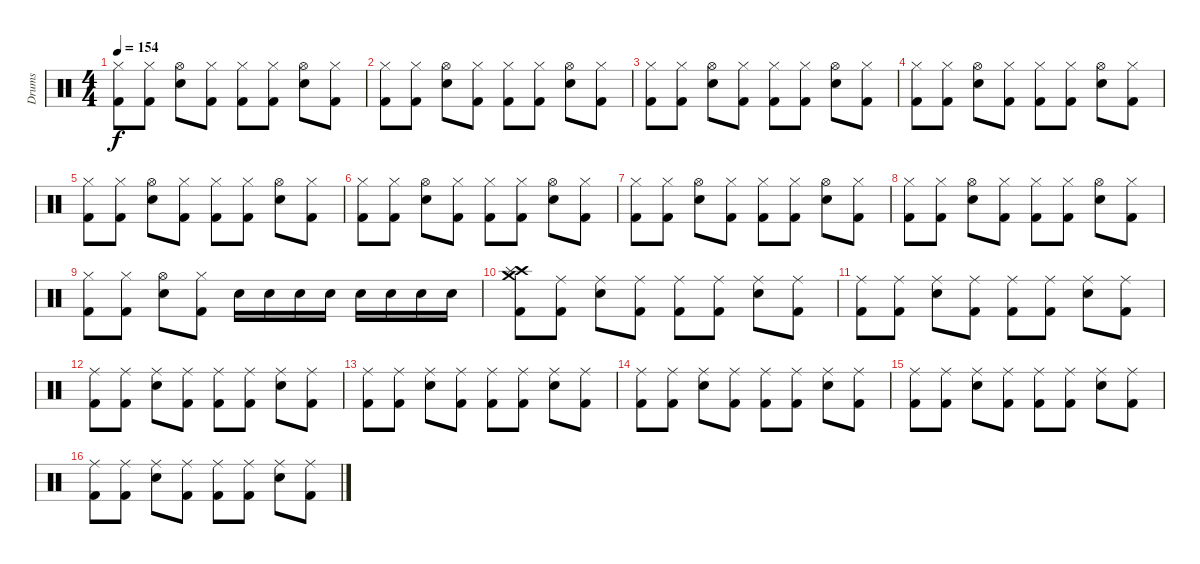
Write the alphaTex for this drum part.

\track ("Drums" "Drums") {instrument percussion}
\staff {score}
\articulation defaults
\ts (4 4)
\tempo 154
\clef neutral
\ks c
("Hi-Hat (closed)" "Kick (hit) 2").8{dy f} ("Hi-Hat (closed)" "Kick (hit) 2").8 ("Hi-Hat (open)" "Snare (hit) 2").8 ("Hi-Hat (closed)" "Kick (hit) 2").8 ("Hi-Hat (closed)" "Kick (hit) 2").8 ("Hi-Hat (closed)" "Kick (hit) 2").8 ("Hi-Hat (open)" "Snare (hit) 2").8 ("Hi-Hat (closed)" "Kick (hit) 2").8 |
("Hi-Hat (closed)" "Kick (hit) 2").8 ("Hi-Hat (closed)" "Kick (hit) 2").8 ("Hi-Hat (open)" "Snare (hit) 2").8 ("Hi-Hat (closed)" "Kick (hit) 2").8 ("Hi-Hat (closed)" "Kick (hit) 2").8 ("Hi-Hat (closed)" "Kick (hit) 2").8 ("Hi-Hat (open)" "Snare (hit) 2").8 ("Hi-Hat (closed)" "Kick (hit) 2").8 |
("Hi-Hat (closed)" "Kick (hit) 2").8 ("Hi-Hat (closed)" "Kick (hit) 2").8 ("Hi-Hat (open)" "Snare (hit) 2").8 ("Hi-Hat (closed)" "Kick (hit) 2").8 ("Hi-Hat (closed)" "Kick (hit) 2").8 ("Hi-Hat (closed)" "Kick (hit) 2").8 ("Hi-Hat (open)" "Snare (hit) 2").8 ("Hi-Hat (closed)" "Kick (hit) 2").8 |
("Hi-Hat (closed)" "Kick (hit) 2").8 ("Hi-Hat (closed)" "Kick (hit) 2").8 ("Hi-Hat (open)" "Snare (hit) 2").8 ("Hi-Hat (closed)" "Kick (hit) 2").8 ("Hi-Hat (closed)" "Kick (hit) 2").8 ("Hi-Hat (closed)" "Kick (hit) 2").8 ("Hi-Hat (open)" "Snare (hit) 2").8 ("Hi-Hat (closed)" "Kick (hit) 2").8 |
("Hi-Hat (closed)" "Kick (hit) 2").8 ("Hi-Hat (closed)" "Kick (hit) 2").8 ("Hi-Hat (open)" "Snare (hit) 2").8 ("Hi-Hat (closed)" "Kick (hit) 2").8 ("Hi-Hat (closed)" "Kick (hit) 2").8 ("Hi-Hat (closed)" "Kick (hit) 2").8 ("Hi-Hat (open)" "Snare (hit) 2").8 ("Hi-Hat (closed)" "Kick (hit) 2").8 |
("Hi-Hat (closed)" "Kick (hit) 2").8 ("Hi-Hat (closed)" "Kick (hit) 2").8 ("Hi-Hat (open)" "Snare (hit) 2").8 ("Hi-Hat (closed)" "Kick (hit) 2").8 ("Hi-Hat (closed)" "Kick (hit) 2").8 ("Hi-Hat (closed)" "Kick (hit) 2").8 ("Hi-Hat (open)" "Snare (hit) 2").8 ("Hi-Hat (closed)" "Kick (hit) 2").8 |
("Hi-Hat (closed)" "Kick (hit) 2").8 ("Hi-Hat (closed)" "Kick (hit) 2").8 ("Hi-Hat (open)" "Snare (hit) 2").8 ("Hi-Hat (closed)" "Kick (hit) 2").8 ("Hi-Hat (closed)" "Kick (hit) 2").8 ("Hi-Hat (closed)" "Kick (hit) 2").8 ("Hi-Hat (open)" "Snare (hit) 2").8 ("Hi-Hat (closed)" "Kick (hit) 2").8 |
("Hi-Hat (closed)" "Kick (hit) 2").8 ("Hi-Hat (closed)" "Kick (hit) 2").8 ("Hi-Hat (open)" "Snare (hit) 2").8 ("Hi-Hat (closed)" "Kick (hit) 2").8 ("Hi-Hat (closed)" "Kick (hit) 2").8 ("Hi-Hat (closed)" "Kick (hit) 2").8 ("Hi-Hat (open)" "Snare (hit) 2").8 ("Hi-Hat (closed)" "Kick (hit) 2").8 |
("Hi-Hat (closed)" "Kick (hit) 2").8 ("Hi-Hat (closed)" "Kick (hit) 2").8 ("Hi-Hat (open)" "Snare (hit) 2").8 ("Hi-Hat (closed)" "Kick (hit) 2").8 "Snare (hit) 2".16 "Snare (hit) 2".16 "Snare (hit) 2".16 "Snare (hit) 2".16 "Snare (hit) 2".16 "Snare (hit) 2".16 "Snare (hit) 2".16 "Snare (hit) 2".16 |
("Crash medium (hit)" "Crash high (hit)" "Splash (hit)" "Kick (hit) 2").8 ("Ride (middle)" "Kick (hit) 2").8 ("Ride (middle)" "Snare (hit) 2").8 ("Ride (middle)" "Kick (hit) 2").8 ("Ride (middle)" "Kick (hit) 2").8 ("Ride (middle)" "Kick (hit) 2").8 ("Ride (middle)" "Snare (hit) 2").8 ("Ride (middle)" "Kick (hit) 2").8 |
("Ride (middle)" "Kick (hit) 2").8 ("Ride (middle)" "Kick (hit) 2").8 ("Ride (middle)" "Snare (hit) 2").8 ("Ride (middle)" "Kick (hit) 2").8 ("Ride (middle)" "Kick (hit) 2").8 ("Ride (middle)" "Kick (hit) 2").8 ("Ride (middle)" "Snare (hit) 2").8 ("Ride (middle)" "Kick (hit) 2").8 |
("Ride (middle)" "Kick (hit) 2").8 ("Ride (middle)" "Kick (hit) 2").8 ("Ride (middle)" "Snare (hit) 2").8 ("Ride (middle)" "Kick (hit) 2").8 ("Ride (middle)" "Kick (hit) 2").8 ("Ride (middle)" "Kick (hit) 2").8 ("Ride (middle)" "Snare (hit) 2").8 ("Ride (middle)" "Kick (hit) 2").8 |
("Ride (middle)" "Kick (hit) 2").8 ("Ride (middle)" "Kick (hit) 2").8 ("Ride (middle)" "Snare (hit) 2").8 ("Ride (middle)" "Kick (hit) 2").8 ("Ride (middle)" "Kick (hit) 2").8 ("Ride (middle)" "Kick (hit) 2").8 ("Ride (middle)" "Snare (hit) 2").8 ("Ride (middle)" "Kick (hit) 2").8 |
("Ride (middle)" "Kick (hit) 2").8 ("Ride (middle)" "Kick (hit) 2").8 ("Ride (middle)" "Snare (hit) 2").8 ("Ride (middle)" "Kick (hit) 2").8 ("Ride (middle)" "Kick (hit) 2").8 ("Ride (middle)" "Kick (hit) 2").8 ("Ride (middle)" "Snare (hit) 2").8 ("Ride (middle)" "Kick (hit) 2").8 |
("Ride (middle)" "Kick (hit) 2").8 ("Ride (middle)" "Kick (hit) 2").8 ("Ride (middle)" "Snare (hit) 2").8 ("Ride (middle)" "Kick (hit) 2").8 ("Ride (middle)" "Kick (hit) 2").8 ("Ride (middle)" "Kick (hit) 2").8 ("Ride (middle)" "Snare (hit) 2").8 ("Ride (middle)" "Kick (hit) 2").8 |
("Ride (middle)" "Kick (hit) 2").8 ("Ride (middle)" "Kick (hit) 2").8 ("Ride (middle)" "Snare (hit) 2").8 ("Ride (middle)" "Kick (hit) 2").8 ("Ride (middle)" "Kick (hit) 2").8 ("Ride (middle)" "Kick (hit) 2").8 ("Ride (middle)" "Snare (hit) 2").8 ("Ride (middle)" "Kick (hit) 2").8
